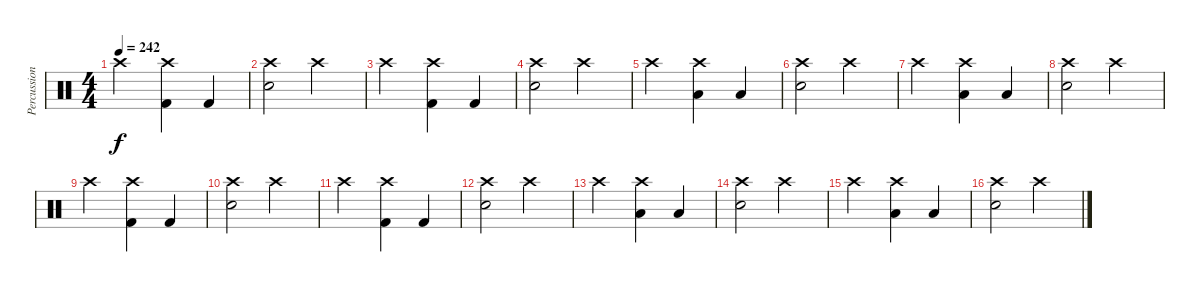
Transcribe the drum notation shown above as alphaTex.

\track ("Percussion" "Percussion") {instrument percussion}
\staff {score}
\articulation defaults
\ts (4 4)
\tempo 242
\clef neutral
\ks c "Crash high (hit)".2{dy f}
("Kick (hit) 2" "Crash high (hit)").4 "Kick (hit) 2".4 |
("Electric Snare (hit)" "Crash high (hit)").2 "Crash high (hit)".2 |
"Crash high (hit)".2 ("Kick (hit) 2" "Crash high (hit)").4 "Kick (hit) 2".4 |
("Electric Snare (hit)" "Crash high (hit)").2 "Crash high (hit)".2 |
"Crash high (hit)".2 ("Low Tom (hit)" "Crash high (hit)").4 "Low Tom (hit)".4 |
("Electric Snare (hit)" "Crash high (hit)").2 "Crash high (hit)".2 |
"Crash high (hit)".2 ("Low Tom (hit)" "Crash high (hit)").4 "Low Tom (hit)".4 |
("Electric Snare (hit)" "Crash high (hit)").2 "Crash high (hit)".2 |
"Crash high (hit)".2 ("Kick (hit) 2" "Crash high (hit)").4 "Kick (hit) 2".4 |
("Electric Snare (hit)" "Crash high (hit)").2 "Crash high (hit)".2 |
"Crash high (hit)".2 ("Kick (hit) 2" "Crash high (hit)").4 "Kick (hit) 2".4 |
("Electric Snare (hit)" "Crash high (hit)").2 "Crash high (hit)".2 |
"Crash high (hit)".2 ("Low Tom (hit)" "Crash high (hit)").4 "Low Tom (hit)".4 |
("Electric Snare (hit)" "Crash high (hit)").2 "Crash high (hit)".2 |
"Crash high (hit)".2 ("Low Tom (hit)" "Crash high (hit)").4 "Low Tom (hit)".4 |
("Electric Snare (hit)" "Crash high (hit)").2 "Crash high (hit)".2
